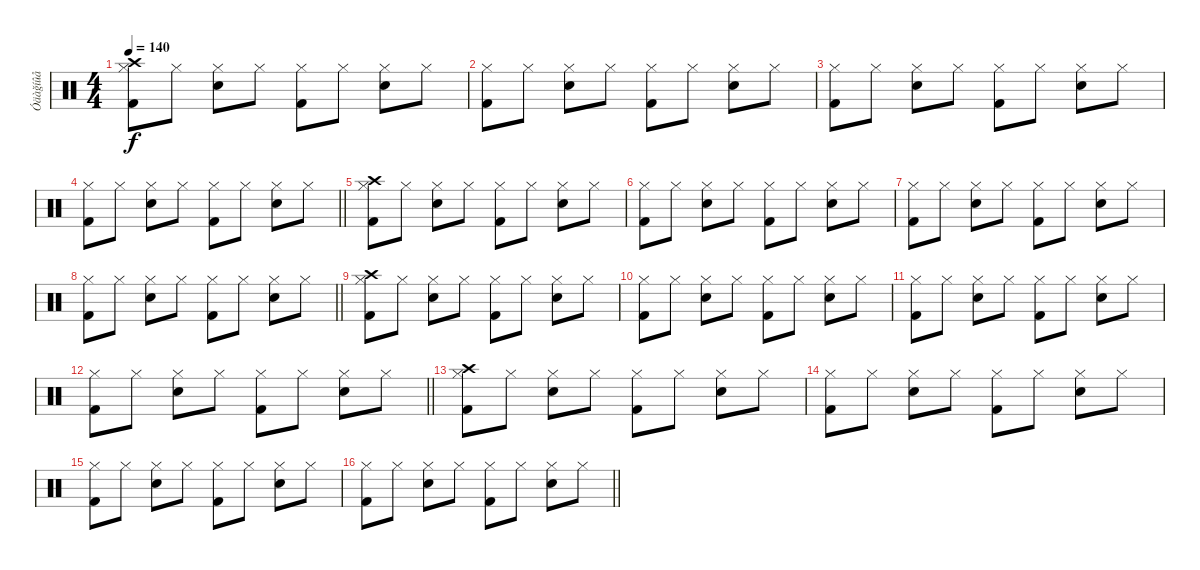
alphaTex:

\track ("Óäàğíûå" "Óäàğíûå") {instrument percussion}
\staff {score}
\articulation defaults
\ts (4 4)
\tempo 140
\clef neutral
\ks c
("Hi-Hat (closed)" "Kick (hit) 2" "Crash high (hit)").8{dy f} "Hi-Hat (closed)".8 ("Hi-Hat (closed)" "Snare (hit) 2").8 "Hi-Hat (closed)".8 ("Hi-Hat (closed)" "Kick (hit) 2").8 "Hi-Hat (closed)".8 ("Hi-Hat (closed)" "Snare (hit) 2").8 "Hi-Hat (closed)".8 |
("Hi-Hat (closed)" "Kick (hit) 2").8 "Hi-Hat (closed)".8 ("Hi-Hat (closed)" "Snare (hit) 2").8 "Hi-Hat (closed)".8 ("Hi-Hat (closed)" "Kick (hit) 2").8 "Hi-Hat (closed)".8 ("Hi-Hat (closed)" "Snare (hit) 2").8 "Hi-Hat (closed)".8 |
("Hi-Hat (closed)" "Kick (hit) 2").8 "Hi-Hat (closed)".8 ("Hi-Hat (closed)" "Snare (hit) 2").8 "Hi-Hat (closed)".8 ("Hi-Hat (closed)" "Kick (hit) 2").8 "Hi-Hat (closed)".8 ("Hi-Hat (closed)" "Snare (hit) 2").8 "Hi-Hat (closed)".8 |
\barLineRight lightlight
("Hi-Hat (closed)" "Kick (hit) 2").8 "Hi-Hat (closed)".8 ("Hi-Hat (closed)" "Snare (hit) 2").8 "Hi-Hat (closed)".8 ("Hi-Hat (closed)" "Kick (hit) 2").8 "Hi-Hat (closed)".8 ("Hi-Hat (closed)" "Snare (hit) 2").8 "Hi-Hat (closed)".8 |
("Hi-Hat (closed)" "Kick (hit) 2" "Crash high (hit)").8 "Hi-Hat (closed)".8 ("Hi-Hat (closed)" "Snare (hit) 2").8 "Hi-Hat (closed)".8 ("Hi-Hat (closed)" "Kick (hit) 2").8 "Hi-Hat (closed)".8 ("Hi-Hat (closed)" "Snare (hit) 2").8 "Hi-Hat (closed)".8 |
("Hi-Hat (closed)" "Kick (hit) 2").8 "Hi-Hat (closed)".8 ("Hi-Hat (closed)" "Snare (hit) 2").8 "Hi-Hat (closed)".8 ("Hi-Hat (closed)" "Kick (hit) 2").8 "Hi-Hat (closed)".8 ("Hi-Hat (closed)" "Snare (hit) 2").8 "Hi-Hat (closed)".8 |
("Hi-Hat (closed)" "Kick (hit) 2").8 "Hi-Hat (closed)".8 ("Hi-Hat (closed)" "Snare (hit) 2").8 "Hi-Hat (closed)".8 ("Hi-Hat (closed)" "Kick (hit) 2").8 "Hi-Hat (closed)".8 ("Hi-Hat (closed)" "Snare (hit) 2").8 "Hi-Hat (closed)".8 |
\barLineRight lightlight
("Hi-Hat (closed)" "Kick (hit) 2").8 "Hi-Hat (closed)".8 ("Hi-Hat (closed)" "Snare (hit) 2").8 "Hi-Hat (closed)".8 ("Hi-Hat (closed)" "Kick (hit) 2").8 "Hi-Hat (closed)".8 ("Hi-Hat (closed)" "Snare (hit) 2").8 "Hi-Hat (closed)".8 |
("Hi-Hat (closed)" "Kick (hit) 2" "Crash high (hit)").8 "Hi-Hat (closed)".8 ("Hi-Hat (closed)" "Snare (hit) 2").8 "Hi-Hat (closed)".8 ("Hi-Hat (closed)" "Kick (hit) 2").8 "Hi-Hat (closed)".8 ("Hi-Hat (closed)" "Snare (hit) 2").8 "Hi-Hat (closed)".8 |
("Hi-Hat (closed)" "Kick (hit) 2").8 "Hi-Hat (closed)".8 ("Hi-Hat (closed)" "Snare (hit) 2").8 "Hi-Hat (closed)".8 ("Hi-Hat (closed)" "Kick (hit) 2").8 "Hi-Hat (closed)".8 ("Hi-Hat (closed)" "Snare (hit) 2").8 "Hi-Hat (closed)".8 |
("Hi-Hat (closed)" "Kick (hit) 2").8 "Hi-Hat (closed)".8 ("Hi-Hat (closed)" "Snare (hit) 2").8 "Hi-Hat (closed)".8 ("Hi-Hat (closed)" "Kick (hit) 2").8 "Hi-Hat (closed)".8 ("Hi-Hat (closed)" "Snare (hit) 2").8 "Hi-Hat (closed)".8 |
\barLineRight lightlight
("Hi-Hat (closed)" "Kick (hit) 2").8 "Hi-Hat (closed)".8 ("Hi-Hat (closed)" "Snare (hit) 2").8 "Hi-Hat (closed)".8 ("Hi-Hat (closed)" "Kick (hit) 2").8 "Hi-Hat (closed)".8 ("Hi-Hat (closed)" "Snare (hit) 2").8 "Hi-Hat (closed)".8 |
("Hi-Hat (closed)" "Kick (hit) 2" "Crash high (hit)").8 "Hi-Hat (closed)".8 ("Hi-Hat (closed)" "Snare (hit) 2").8 "Hi-Hat (closed)".8 ("Hi-Hat (closed)" "Kick (hit) 2").8 "Hi-Hat (closed)".8 ("Hi-Hat (closed)" "Snare (hit) 2").8 "Hi-Hat (closed)".8 |
("Hi-Hat (closed)" "Kick (hit) 2").8 "Hi-Hat (closed)".8 ("Hi-Hat (closed)" "Snare (hit) 2").8 "Hi-Hat (closed)".8 ("Hi-Hat (closed)" "Kick (hit) 2").8 "Hi-Hat (closed)".8 ("Hi-Hat (closed)" "Snare (hit) 2").8 "Hi-Hat (closed)".8 |
("Hi-Hat (closed)" "Kick (hit) 2").8 "Hi-Hat (closed)".8 ("Hi-Hat (closed)" "Snare (hit) 2").8 "Hi-Hat (closed)".8 ("Hi-Hat (closed)" "Kick (hit) 2").8 "Hi-Hat (closed)".8 ("Hi-Hat (closed)" "Snare (hit) 2").8 "Hi-Hat (closed)".8 |
\barLineRight lightlight
("Hi-Hat (closed)" "Kick (hit) 2").8 "Hi-Hat (closed)".8 ("Hi-Hat (closed)" "Snare (hit) 2").8 "Hi-Hat (closed)".8 ("Hi-Hat (closed)" "Kick (hit) 2").8 "Hi-Hat (closed)".8 ("Hi-Hat (closed)" "Snare (hit) 2").8 "Hi-Hat (closed)".8
